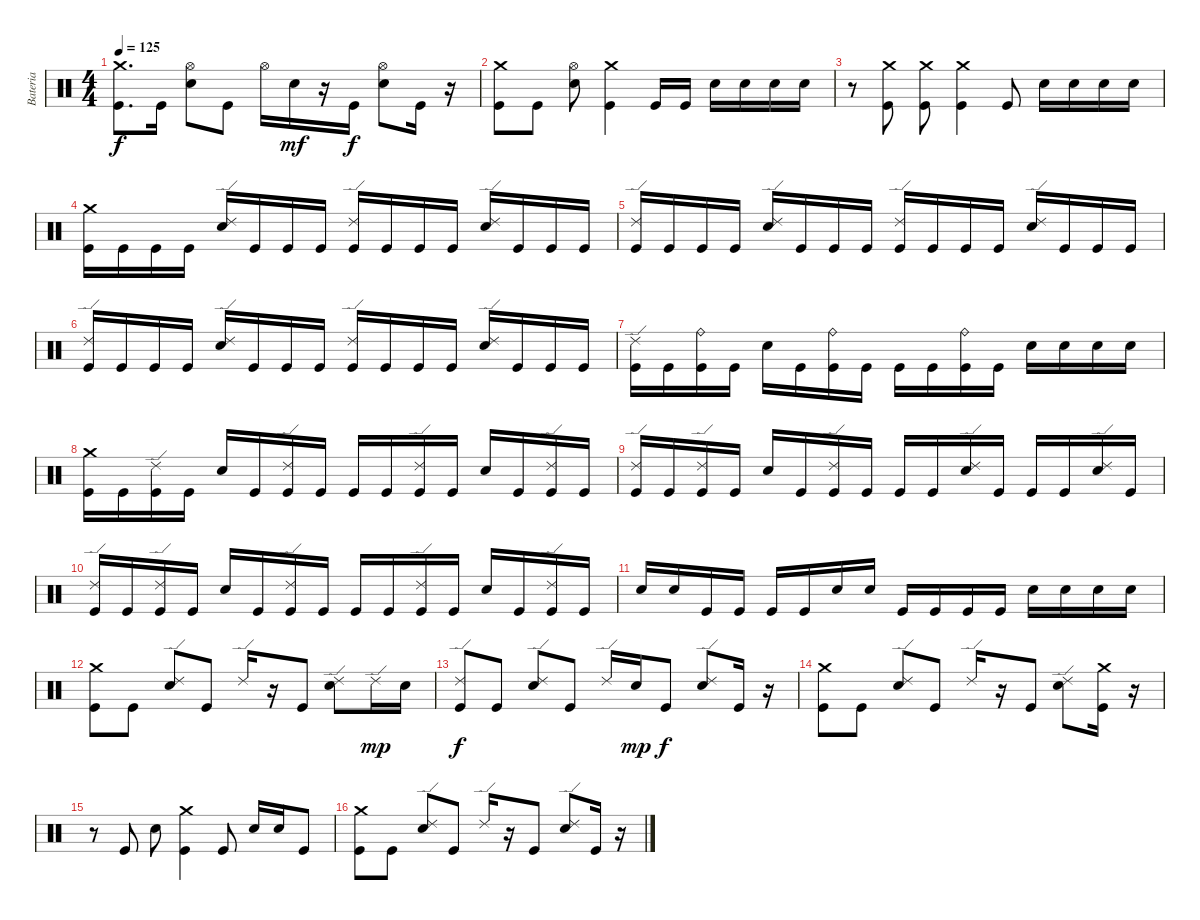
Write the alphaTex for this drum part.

\track ("Bateria" "Bateria") {instrument percussion}
\staff {score}
\articulation defaults
\ts (4 4)
\tempo 125
\clef neutral
\ks c
("Crash medium (hit)" "Kick (hit)").8{d dy f} "Kick (hit)".16 ("Hi-Hat (open)" "Electric Snare (hit)").8 "Kick (hit)".8 "Hi-Hat (open)".16 "Electric Snare (hit)".16{dy mf} r.16 "Kick (hit)".16{dy f} ("Hi-Hat (open)" "Electric Snare (hit)").8 "Kick (hit)".16 r.16 |
("Crash medium (hit)" "Kick (hit)").8 "Kick (hit)".8 ("Hi-Hat (open)" "Electric Snare (hit)").8 ("Crash medium (hit)" "Kick (hit)").4 "Kick (hit)".16 "Kick (hit)".16 "Electric Snare (hit)".16 "Electric Snare (hit)".16 "Electric Snare (hit)".16 "Electric Snare (hit)".16 |
r.8 ("Crash medium (hit)" "Kick (hit)").8 ("Crash medium (hit)" "Kick (hit)").8 ("Crash medium (hit)" "Kick (hit)").4 "Kick (hit)".8 "Electric Snare (hit)".16 "Electric Snare (hit)".16 "Electric Snare (hit)".16 "Electric Snare (hit)".16 |
("Crash medium (hit)" "Kick (hit)").16 "Kick (hit)".16 "Kick (hit)".16 "Kick (hit)".16 ("Ride (edge) 2" "Electric Snare (hit)").16 "Kick (hit)".16 "Kick (hit)".16 "Kick (hit)".16 ("Ride (edge) 2" "Kick (hit)").16 "Kick (hit)".16 "Kick (hit)".16 "Kick (hit)".16 ("Ride (edge) 2" "Electric Snare (hit)").16 "Kick (hit)".16 "Kick (hit)".16 "Kick (hit)".16 |
("Ride (edge) 2" "Kick (hit)").16 "Kick (hit)".16 "Kick (hit)".16 "Kick (hit)".16 ("Ride (edge) 2" "Electric Snare (hit)").16 "Kick (hit)".16 "Kick (hit)".16 "Kick (hit)".16 ("Ride (edge) 2" "Kick (hit)").16 "Kick (hit)".16 "Kick (hit)".16 "Kick (hit)".16 ("Ride (edge) 2" "Electric Snare (hit)").16 "Kick (hit)".16 "Kick (hit)".16 "Kick (hit)".16 |
("Ride (edge) 2" "Kick (hit)").16 "Kick (hit)".16 "Kick (hit)".16 "Kick (hit)".16 ("Ride (edge) 2" "Electric Snare (hit)").16 "Kick (hit)".16 "Kick (hit)".16 "Kick (hit)".16 ("Ride (edge) 2" "Kick (hit)").16 "Kick (hit)".16 "Kick (hit)".16 "Kick (hit)".16 ("Ride (edge) 2" "Electric Snare (hit)").16 "Kick (hit)".16 "Kick (hit)".16 "Kick (hit)".16 |
("Ride (edge) 2" "Kick (hit)").16 "Kick (hit)".16 ("Ride (bell)" "Kick (hit)").16 "Kick (hit)".16 "Electric Snare (hit)".16 "Kick (hit)".16 ("Ride (bell)" "Kick (hit)").16 "Kick (hit)".16 "Kick (hit)".16 "Kick (hit)".16 ("Ride (bell)" "Kick (hit)").16 "Kick (hit)".16 "Electric Snare (hit)".16 "Electric Snare (hit)".16 "Electric Snare (hit)".16 "Electric Snare (hit)".16 |
("Crash medium (hit)" "Kick (hit)").16 "Kick (hit)".16 ("Ride (edge) 2" "Kick (hit)").16 "Kick (hit)".16 "Electric Snare (hit)".16 "Kick (hit)".16 ("Ride (edge) 2" "Kick (hit)").16 "Kick (hit)".16 "Kick (hit)".16 "Kick (hit)".16 ("Ride (edge) 2" "Kick (hit)").16 "Kick (hit)".16 "Electric Snare (hit)".16 "Kick (hit)".16 ("Ride (edge) 2" "Kick (hit)").16 "Kick (hit)".16 |
("Ride (edge) 2" "Kick (hit)").16 "Kick (hit)".16 ("Ride (edge) 2" "Kick (hit)").16 "Kick (hit)".16 "Electric Snare (hit)".16 "Kick (hit)".16 ("Ride (edge) 2" "Kick (hit)").16 "Kick (hit)".16 "Kick (hit)".16 "Kick (hit)".16 ("Ride (edge) 2" "Electric Snare (hit)").16 "Kick (hit)".16 "Kick (hit)".16 "Kick (hit)".16 ("Ride (edge) 2" "Electric Snare (hit)").16 "Kick (hit)".16 |
("Ride (edge) 2" "Kick (hit)").16 "Kick (hit)".16 ("Ride (edge) 2" "Kick (hit)").16 "Kick (hit)".16 "Electric Snare (hit)".16 "Kick (hit)".16 ("Ride (edge) 2" "Kick (hit)").16 "Kick (hit)".16 "Kick (hit)".16 "Kick (hit)".16 ("Ride (edge) 2" "Kick (hit)").16 "Kick (hit)".16 "Electric Snare (hit)".16 "Kick (hit)".16 ("Ride (edge) 2" "Kick (hit)").16 "Kick (hit)".16 |
"Electric Snare (hit)".16 "Electric Snare (hit)".16 "Kick (hit)".16 "Kick (hit)".16 "Kick (hit)".16 "Kick (hit)".16 "Electric Snare (hit)".16 "Electric Snare (hit)".16 "Kick (hit)".16 "Kick (hit)".16 "Kick (hit)".16 "Kick (hit)".16 "Electric Snare (hit)".16 "Electric Snare (hit)".16 "Electric Snare (hit)".16 "Electric Snare (hit)".16 |
("Crash medium (hit)" "Kick (hit)").8 "Kick (hit)".8 ("Ride (edge) 2" "Electric Snare (hit)").8 "Kick (hit)".8 "Ride (edge) 2".16 r.16 "Kick (hit)".8 ("Ride (edge) 2" "Electric Snare (hit)").8 "Ride (edge) 2".16{dy mp} "Electric Snare (hit)".16 |
("Ride (edge) 2" "Kick (hit)").8{dy f} "Kick (hit)".8 ("Ride (edge) 2" "Electric Snare (hit)").8 "Kick (hit)".8 "Ride (edge) 2".16 "Electric Snare (hit)".16{dy mp} "Kick (hit)".8{dy f} ("Ride (edge) 2" "Electric Snare (hit)").8 "Kick (hit)".16 r.16 |
("Crash medium (hit)" "Kick (hit)").8 "Kick (hit)".8 ("Ride (edge) 2" "Electric Snare (hit)").8 "Kick (hit)".8 "Ride (edge) 2".16 r.16 "Kick (hit)".8 ("Ride (edge) 2" "Electric Snare (hit)").8 ("Crash medium (hit)" "Kick (hit)").16 r.16 |
r.8 "Kick (hit)".8 "Electric Snare (hit)".8 ("Crash medium (hit)" "Kick (hit)").4 "Kick (hit)".8 "Electric Snare (hit)".16 "Electric Snare (hit)".16 "Kick (hit)".8 |
("Crash medium (hit)" "Kick (hit)").8 "Kick (hit)".8 ("Ride (edge) 2" "Electric Snare (hit)").8 "Kick (hit)".8 "Ride (edge) 2".16 r.16 "Kick (hit)".8 ("Ride (edge) 2" "Electric Snare (hit)").8 "Kick (hit)".16 r.16
